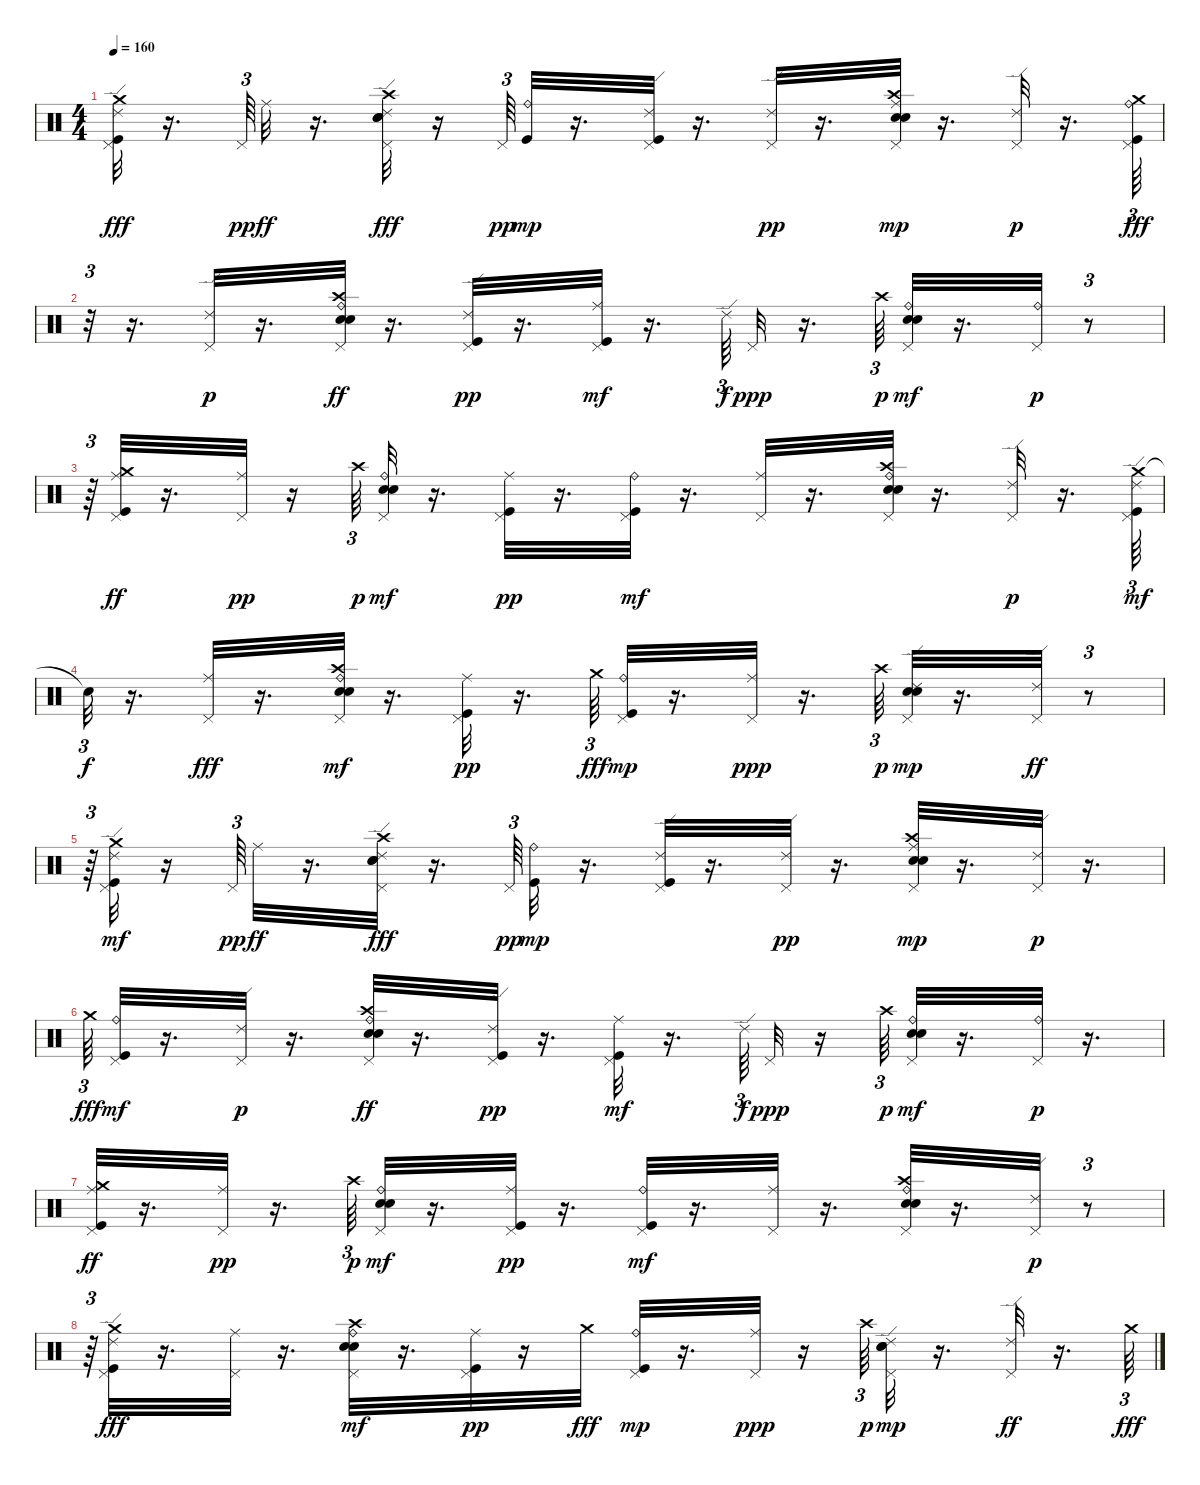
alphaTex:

\track "" {instrument percussion}
\staff {score}
\articulation defaults
\ts (4 4)
\tempo 160
\clef neutral
\ks c
("Kick (hit)" "Ride (edge) 2" "Pedal Hi-Hat (hit)" "Crash medium (hit)").32{dy fff} r.16{d} "Pedal Hi-Hat (hit)".64{tu (3 2) dy pp} "Ride (middle)".32{dy ff} r.16{d} ("Pedal Hi-Hat (hit)" "Electric Snare (hit)" "Crash high (hit)" "Snare (hit) 2" "Ride (edge) 2").32{dy fff} r.16 "Pedal Hi-Hat (hit)".64{tu (3 2) dy pp} ("Kick (hit)" "Ride (bell)").32{dy mp} r.16{d} ("Kick (hit)" "Ride (edge) 2" "Pedal Hi-Hat (hit)").32 r.16{d} ("Ride (edge) 2" "Pedal Hi-Hat (hit)").32{dy pp} r.16{d} ("Electric Snare (hit)" "Snare (hit) 2" "Ride (middle)" "Pedal Hi-Hat (hit)" "Crash high (hit)").32{dy mp} r.16{d} ("Ride (edge) 2" "Pedal Hi-Hat (hit)").32{dy p} r.16{d} ("Kick (hit)" "Ride (bell)" "Pedal Hi-Hat (hit)" "Crash medium (hit)").64{tu (3 2) dy fff} |
r.32{tu (3 2)} r.16{d} ("Ride (edge) 2" "Pedal Hi-Hat (hit)").32{dy p} r.16{d} ("Electric Snare (hit)" "Crash high (hit)" "Snare (hit) 2" "Ride (bell)" "Pedal Hi-Hat (hit)").32{dy ff} r.16{d} ("Kick (hit)" "Ride (edge) 2" "Pedal Hi-Hat (hit)").32{dy pp} r.16{d} ("Kick (hit)" "Ride (middle)" "Pedal Hi-Hat (hit)").32{dy mf} r.16{d} "Ride (edge) 2".64{tu (3 2) dy f} "Pedal Hi-Hat (hit)".32{dy ppp} r.16{d} "Crash high (hit)".64{tu (3 2) dy p} ("Electric Snare (hit)" "Snare (hit) 2" "Ride (bell)" "Pedal Hi-Hat (hit)").32{dy mf} r.16{d} ("Ride (bell)" "Pedal Hi-Hat (hit)").32{dy p} r.8{tu (3 2)} |
r.64{tu (3 2)} ("Crash medium (hit)" "Kick (hit)" "Ride (middle)" "Pedal Hi-Hat (hit)").32{dy ff} r.16{d} ("Ride (middle)" "Pedal Hi-Hat (hit)").32{dy pp} r.16 "Crash high (hit)".64{tu (3 2) dy p} ("Electric Snare (hit)" "Snare (hit) 2" "Ride (bell)" "Pedal Hi-Hat (hit)").32{dy mf} r.16{d} ("Kick (hit)" "Ride (middle)" "Pedal Hi-Hat (hit)").32{dy pp} r.16{d} ("Kick (hit)" "Ride (bell)" "Pedal Hi-Hat (hit)").32{dy mf} r.16{d} ("Pedal Hi-Hat (hit)" "Ride (middle)").32 r.16{d} ("Electric Snare (hit)" "Crash high (hit)" "Snare (hit) 2" "Ride (bell)" "Pedal Hi-Hat (hit)").32 r.16{d} ("Ride (edge) 2" "Pedal Hi-Hat (hit)").32{dy p} r.16{d} ("Crash medium (hit)" "Kick (hit)" "Ride (edge) 2" "Pedal Hi-Hat (hit)").64{tu (3 2) dy mf} |
"Snare (hit)"{t}.32{tu (3 2) dy f} r.16{d} ("Pedal Hi-Hat (hit)" "Ride (middle)").32{dy fff} r.16{d} ("Electric Snare (hit)" "Crash high (hit)" "Snare (hit) 2" "Ride (bell)" "Pedal Hi-Hat (hit)").32{dy mf} r.16{d} ("Kick (hit)" "Ride (middle)" "Pedal Hi-Hat (hit)").32{dy pp} r.16{d} "Crash medium (hit)".64{tu (3 2) dy fff} ("Kick (hit)" "Ride (bell)" "Pedal Hi-Hat (hit)").32{dy mp} r.16{d} ("Ride (middle)" "Pedal Hi-Hat (hit)").32{dy ppp} r.16{d} "Crash high (hit)".64{tu (3 2) dy p} ("Electric Snare (hit)" "Snare (hit) 2" "Ride (edge) 2" "Pedal Hi-Hat (hit)").32{dy mp} r.16{d} ("Pedal Hi-Hat (hit)" "Ride (edge) 2").32{dy ff} r.8{tu (3 2)} |
r.64{tu (3 2)} ("Crash medium (hit)" "Kick (hit)" "Ride (edge) 2" "Pedal Hi-Hat (hit)").32{dy mf} r.16 "Pedal Hi-Hat (hit)".64{tu (3 2) dy pp} "Ride (middle)".32{dy ff} r.16{d} ("Pedal Hi-Hat (hit)" "Electric Snare (hit)" "Crash high (hit)" "Snare (hit) 2" "Ride (edge) 2").32{dy fff} r.16{d} "Pedal Hi-Hat (hit)".64{tu (3 2) dy pp} ("Kick (hit)" "Ride (bell)").32{dy mp} r.16{d} ("Kick (hit)" "Ride (edge) 2" "Pedal Hi-Hat (hit)").32 r.16{d} ("Ride (edge) 2" "Pedal Hi-Hat (hit)").32{dy pp} r.16{d} ("Electric Snare (hit)" "Snare (hit) 2" "Ride (middle)" "Pedal Hi-Hat (hit)" "Crash high (hit)").32{dy mp} r.16{d} ("Ride (edge) 2" "Pedal Hi-Hat (hit)").32{dy p} r.16{d} |
"Crash medium (hit)".64{tu (3 2) dy fff} ("Kick (hit)" "Ride (bell)" "Pedal Hi-Hat (hit)").32{dy mf} r.16{d} ("Ride (edge) 2" "Pedal Hi-Hat (hit)").32{dy p} r.16{d} ("Electric Snare (hit)" "Crash high (hit)" "Snare (hit) 2" "Ride (bell)" "Pedal Hi-Hat (hit)").32{dy ff} r.16{d} ("Kick (hit)" "Ride (edge) 2" "Pedal Hi-Hat (hit)").32{dy pp} r.16{d} ("Kick (hit)" "Ride (middle)" "Pedal Hi-Hat (hit)").32{dy mf} r.16{d} "Ride (edge) 2".64{tu (3 2) dy f} "Pedal Hi-Hat (hit)".32{dy ppp} r.16 "Crash high (hit)".64{tu (3 2) dy p} ("Electric Snare (hit)" "Snare (hit) 2" "Ride (bell)" "Pedal Hi-Hat (hit)").32{dy mf} r.16{d} ("Ride (bell)" "Pedal Hi-Hat (hit)").32{dy p} r.16{d} |
("Crash medium (hit)" "Kick (hit)" "Ride (middle)" "Pedal Hi-Hat (hit)").32{dy ff} r.16{d} ("Ride (middle)" "Pedal Hi-Hat (hit)").32{dy pp} r.16{d} "Crash high (hit)".64{tu (3 2) dy p} ("Electric Snare (hit)" "Snare (hit) 2" "Ride (bell)" "Pedal Hi-Hat (hit)").32{dy mf} r.16{d} ("Kick (hit)" "Ride (middle)" "Pedal Hi-Hat (hit)").32{dy pp} r.16{d} ("Kick (hit)" "Ride (bell)" "Pedal Hi-Hat (hit)").32{dy mf} r.16{d} ("Pedal Hi-Hat (hit)" "Ride (middle)").32 r.16{d} ("Electric Snare (hit)" "Crash high (hit)" "Snare (hit) 2" "Ride (bell)" "Pedal Hi-Hat (hit)").32 r.16{d} ("Ride (edge) 2" "Pedal Hi-Hat (hit)").32{dy p} r.8{tu (3 2)} |
r.64{tu (3 2)} ("Kick (hit)" "Ride (edge) 2" "Pedal Hi-Hat (hit)" "Crash medium (hit)").32{dy fff} r.16{d} ("Pedal Hi-Hat (hit)" "Ride (middle)").32 r.16{d} ("Electric Snare (hit)" "Crash high (hit)" "Snare (hit) 2" "Ride (bell)" "Pedal Hi-Hat (hit)").32{dy mf} r.16{d} ("Kick (hit)" "Ride (middle)" "Pedal Hi-Hat (hit)").32{dy pp} r.16 "Crash medium (hit)".32{dy fff} ("Kick (hit)" "Ride (bell)" "Pedal Hi-Hat (hit)").32{dy mp} r.16{d} ("Ride (middle)" "Pedal Hi-Hat (hit)").32{dy ppp} r.16 "Crash high (hit)".64{tu (3 2) dy p} ("Electric Snare (hit)" "Snare (hit) 2" "Ride (edge) 2" "Pedal Hi-Hat (hit)").32{dy mp} r.16{d} ("Pedal Hi-Hat (hit)" "Ride (edge) 2").32{dy ff} r.16{d} "Crash medium (hit)".64{tu (3 2) dy fff}
